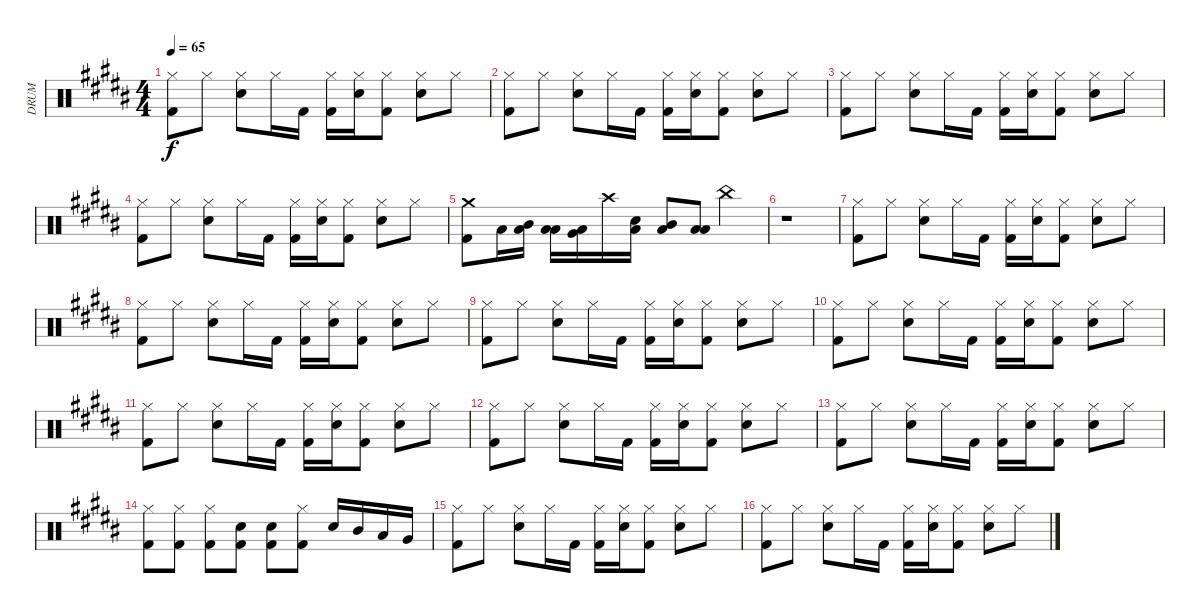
\track ("DRUM" "DRUM") {instrument percussion}
\staff {score}
\articulation defaults
\ts (4 4)
\tempo 65
\clef neutral
\ks b
("Hi-Hat (closed)" "Kick (hit) 2").8{dy f} "Hi-Hat (closed)".8 ("Hi-Hat (closed)" "Electric Snare (hit)").8 "Hi-Hat (closed)".16 "Kick (hit) 2".16 ("Hi-Hat (closed)" "Kick (hit) 2").16 ("Hi-Hat (closed)" "Electric Snare (hit)").16 ("Hi-Hat (closed)" "Kick (hit) 2").8 ("Hi-Hat (closed)" "Electric Snare (hit)").8 "Hi-Hat (closed)".8 |
("Hi-Hat (closed)" "Kick (hit) 2").8 "Hi-Hat (closed)".8 ("Hi-Hat (closed)" "Electric Snare (hit)").8 "Hi-Hat (closed)".16 "Kick (hit) 2".16 ("Hi-Hat (closed)" "Kick (hit) 2").16 ("Hi-Hat (closed)" "Electric Snare (hit)").16 ("Hi-Hat (closed)" "Kick (hit) 2").8 ("Hi-Hat (closed)" "Electric Snare (hit)").8 "Hi-Hat (closed)".8 |
("Hi-Hat (closed)" "Kick (hit) 2").8 "Hi-Hat (closed)".8 ("Hi-Hat (closed)" "Electric Snare (hit)").8 "Hi-Hat (closed)".16 "Kick (hit) 2".16 ("Hi-Hat (closed)" "Kick (hit) 2").16 ("Hi-Hat (closed)" "Electric Snare (hit)").16 ("Hi-Hat (closed)" "Kick (hit) 2").8 ("Hi-Hat (closed)" "Electric Snare (hit)").8 "Hi-Hat (closed)".8 |
("Hi-Hat (closed)" "Kick (hit) 2").8 "Hi-Hat (closed)".8 ("Hi-Hat (closed)" "Electric Snare (hit)").8 "Hi-Hat (closed)".16 "Kick (hit) 2".16 ("Hi-Hat (closed)" "Kick (hit) 2").16 ("Hi-Hat (closed)" "Electric Snare (hit)").16 ("Hi-Hat (closed)" "Kick (hit) 2").8 ("Hi-Hat (closed)" "Electric Snare (hit)").8 "Hi-Hat (closed)".8 |
("Crash medium (hit)" "Kick (hit) 2").8 "Low Floor Tom (hit)".16 ("Mid Tom (hit)" "Low Floor Tom (hit)").16 ("Low Tom (hit)" "Low Floor Tom (hit)").16 ("Very Low Tom (hit)" "Low Floor Tom (hit)").16 "Crash high (hit)".16 ("Electric Snare (hit)" "Low Floor Tom (hit)").16 ("Mid Tom (hit)" "Low Floor Tom (hit)").8 ("Low Tom (hit)" "Low Floor Tom (hit)").8 "China (hit)".4 |
r.1 |
("Hi-Hat (closed)" "Kick (hit) 2").8 "Hi-Hat (closed)".8 ("Hi-Hat (closed)" "Electric Snare (hit)").8 "Hi-Hat (closed)".16 "Kick (hit) 2".16 ("Hi-Hat (closed)" "Kick (hit) 2").16 ("Hi-Hat (closed)" "Electric Snare (hit)").16 ("Hi-Hat (closed)" "Kick (hit) 2").8 ("Hi-Hat (closed)" "Electric Snare (hit)").8 "Hi-Hat (closed)".8 |
("Hi-Hat (closed)" "Kick (hit) 2").8 "Hi-Hat (closed)".8 ("Hi-Hat (closed)" "Electric Snare (hit)").8 "Hi-Hat (closed)".16 "Kick (hit) 2".16 ("Hi-Hat (closed)" "Kick (hit) 2").16 ("Hi-Hat (closed)" "Electric Snare (hit)").16 ("Hi-Hat (closed)" "Kick (hit) 2").8 ("Hi-Hat (closed)" "Electric Snare (hit)").8 "Hi-Hat (closed)".8 |
("Hi-Hat (closed)" "Kick (hit) 2").8 "Hi-Hat (closed)".8 ("Hi-Hat (closed)" "Electric Snare (hit)").8 "Hi-Hat (closed)".16 "Kick (hit) 2".16 ("Hi-Hat (closed)" "Kick (hit) 2").16 ("Hi-Hat (closed)" "Electric Snare (hit)").16 ("Hi-Hat (closed)" "Kick (hit) 2").8 ("Hi-Hat (closed)" "Electric Snare (hit)").8 "Hi-Hat (closed)".8 |
("Hi-Hat (closed)" "Kick (hit) 2").8 "Hi-Hat (closed)".8 ("Hi-Hat (closed)" "Electric Snare (hit)").8 "Hi-Hat (closed)".16 "Kick (hit) 2".16 ("Hi-Hat (closed)" "Kick (hit) 2").16 ("Hi-Hat (closed)" "Electric Snare (hit)").16 ("Hi-Hat (closed)" "Kick (hit) 2").8 ("Hi-Hat (closed)" "Electric Snare (hit)").8 "Hi-Hat (closed)".8 |
("Hi-Hat (closed)" "Kick (hit) 2").8 "Hi-Hat (closed)".8 ("Hi-Hat (closed)" "Electric Snare (hit)").8 "Hi-Hat (closed)".16 "Kick (hit) 2".16 ("Hi-Hat (closed)" "Kick (hit) 2").16 ("Hi-Hat (closed)" "Electric Snare (hit)").16 ("Hi-Hat (closed)" "Kick (hit) 2").8 ("Hi-Hat (closed)" "Electric Snare (hit)").8 "Hi-Hat (closed)".8 |
("Hi-Hat (closed)" "Kick (hit) 2").8 "Hi-Hat (closed)".8 ("Hi-Hat (closed)" "Electric Snare (hit)").8 "Hi-Hat (closed)".16 "Kick (hit) 2".16 ("Hi-Hat (closed)" "Kick (hit) 2").16 ("Hi-Hat (closed)" "Electric Snare (hit)").16 ("Hi-Hat (closed)" "Kick (hit) 2").8 ("Hi-Hat (closed)" "Electric Snare (hit)").8 "Hi-Hat (closed)".8 |
("Hi-Hat (closed)" "Kick (hit) 2").8 "Hi-Hat (closed)".8 ("Hi-Hat (closed)" "Electric Snare (hit)").8 "Hi-Hat (closed)".16 "Kick (hit) 2".16 ("Hi-Hat (closed)" "Kick (hit) 2").16 ("Hi-Hat (closed)" "Electric Snare (hit)").16 ("Hi-Hat (closed)" "Kick (hit) 2").8 ("Hi-Hat (closed)" "Electric Snare (hit)").8 "Hi-Hat (closed)".8 |
("Hi-Hat (closed)" "Kick (hit) 2").8 ("Hi-Hat (closed)" "Kick (hit) 2").8 ("Hi-Hat (closed)" "Kick (hit) 2").8 ("Electric Snare (hit)" "Kick (hit) 2").8 ("Electric Snare (hit)" "Kick (hit) 2").8 ("Hi-Hat (closed)" "Kick (hit) 2").8 "Electric Snare (hit)".16 "Mid Tom (hit)".16 "Low Tom (hit)".16 "Very Low Tom (hit)".16 |
("Hi-Hat (closed)" "Kick (hit) 2").8 "Hi-Hat (closed)".8 ("Hi-Hat (closed)" "Electric Snare (hit)").8 "Hi-Hat (closed)".16 "Kick (hit) 2".16 ("Hi-Hat (closed)" "Kick (hit) 2").16 ("Hi-Hat (closed)" "Electric Snare (hit)").16 ("Hi-Hat (closed)" "Kick (hit) 2").8 ("Hi-Hat (closed)" "Electric Snare (hit)").8 "Hi-Hat (closed)".8 |
("Hi-Hat (closed)" "Kick (hit) 2").8 "Hi-Hat (closed)".8 ("Hi-Hat (closed)" "Electric Snare (hit)").8 "Hi-Hat (closed)".16 "Kick (hit) 2".16 ("Hi-Hat (closed)" "Kick (hit) 2").16 ("Hi-Hat (closed)" "Electric Snare (hit)").16 ("Hi-Hat (closed)" "Kick (hit) 2").8 ("Hi-Hat (closed)" "Electric Snare (hit)").8 "Hi-Hat (closed)".8
